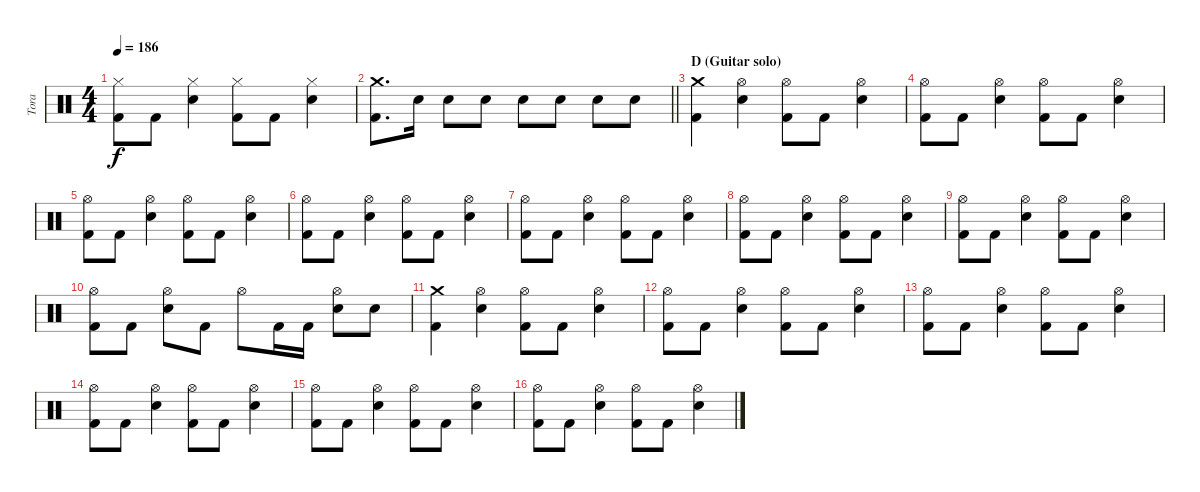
\track ("Tora" "Tora") {instrument percussion}
\staff {score}
\articulation defaults
\ts (4 4)
\tempo 186
\clef neutral
\ks c
("Hi-Hat (closed)" "Kick (hit) 2").8{dy f} "Kick (hit) 2".8 ("Hi-Hat (closed)" "Electric Snare (hit)").4 ("Hi-Hat (closed)" "Kick (hit) 2").8 "Kick (hit) 2".8 ("Hi-Hat (closed)" "Electric Snare (hit)").4 |
\barLineRight lightlight
("Crash medium (hit)" "Kick (hit) 2").8{d} "Electric Snare (hit)".16 "Electric Snare (hit)".8 "Electric Snare (hit)".8 "Electric Snare (hit)".8 "Electric Snare (hit)".8 "Electric Snare (hit)".8 "Electric Snare (hit)".8 |
\section ("" "D (Guitar solo)")
("Crash medium (hit)" "Kick (hit) 2").4 ("Hi-Hat (open)" "Electric Snare (hit)").4 ("Hi-Hat (open)" "Kick (hit) 2").8 "Kick (hit) 2".8 ("Hi-Hat (open)" "Electric Snare (hit)").4 |
("Hi-Hat (open)" "Kick (hit) 2").8 "Kick (hit) 2".8 ("Hi-Hat (open)" "Electric Snare (hit)").4 ("Hi-Hat (open)" "Kick (hit) 2").8 "Kick (hit) 2".8 ("Hi-Hat (open)" "Electric Snare (hit)").4 |
("Hi-Hat (open)" "Kick (hit) 2").8 "Kick (hit) 2".8 ("Hi-Hat (open)" "Electric Snare (hit)").4 ("Hi-Hat (open)" "Kick (hit) 2").8 "Kick (hit) 2".8 ("Hi-Hat (open)" "Electric Snare (hit)").4 |
("Hi-Hat (open)" "Kick (hit) 2").8 "Kick (hit) 2".8 ("Hi-Hat (open)" "Electric Snare (hit)").4 ("Hi-Hat (open)" "Kick (hit) 2").8 "Kick (hit) 2".8 ("Hi-Hat (open)" "Electric Snare (hit)").4 |
("Hi-Hat (open)" "Kick (hit) 2").8 "Kick (hit) 2".8 ("Hi-Hat (open)" "Electric Snare (hit)").4 ("Hi-Hat (open)" "Kick (hit) 2").8 "Kick (hit) 2".8 ("Hi-Hat (open)" "Electric Snare (hit)").4 |
("Hi-Hat (open)" "Kick (hit) 2").8 "Kick (hit) 2".8 ("Hi-Hat (open)" "Electric Snare (hit)").4 ("Hi-Hat (open)" "Kick (hit) 2").8 "Kick (hit) 2".8 ("Hi-Hat (open)" "Electric Snare (hit)").4 |
("Hi-Hat (open)" "Kick (hit) 2").8 "Kick (hit) 2".8 ("Hi-Hat (open)" "Electric Snare (hit)").4 ("Hi-Hat (open)" "Kick (hit) 2").8 "Kick (hit) 2".8 ("Hi-Hat (open)" "Electric Snare (hit)").4 |
("Hi-Hat (open)" "Kick (hit) 2").8 "Kick (hit) 2".8 ("Hi-Hat (open)" "Electric Snare (hit)").8 "Kick (hit) 2".8 "Hi-Hat (open)".8 "Kick (hit) 2".16 "Kick (hit) 2".16 ("Hi-Hat (open)" "Electric Snare (hit)").8 "Electric Snare (hit)".8 |
("Crash medium (hit)" "Kick (hit) 2").4 ("Hi-Hat (open)" "Electric Snare (hit)").4 ("Hi-Hat (open)" "Kick (hit) 2").8 "Kick (hit) 2".8 ("Hi-Hat (open)" "Electric Snare (hit)").4 |
("Hi-Hat (open)" "Kick (hit) 2").8 "Kick (hit) 2".8 ("Hi-Hat (open)" "Electric Snare (hit)").4 ("Hi-Hat (open)" "Kick (hit) 2").8 "Kick (hit) 2".8 ("Hi-Hat (open)" "Electric Snare (hit)").4 |
("Hi-Hat (open)" "Kick (hit) 2").8 "Kick (hit) 2".8 ("Hi-Hat (open)" "Electric Snare (hit)").4 ("Hi-Hat (open)" "Kick (hit) 2").8 "Kick (hit) 2".8 ("Hi-Hat (open)" "Electric Snare (hit)").4 |
("Hi-Hat (open)" "Kick (hit) 2").8 "Kick (hit) 2".8 ("Hi-Hat (open)" "Electric Snare (hit)").4 ("Hi-Hat (open)" "Kick (hit) 2").8 "Kick (hit) 2".8 ("Hi-Hat (open)" "Electric Snare (hit)").4 |
("Hi-Hat (open)" "Kick (hit) 2").8 "Kick (hit) 2".8 ("Hi-Hat (open)" "Electric Snare (hit)").4 ("Hi-Hat (open)" "Kick (hit) 2").8 "Kick (hit) 2".8 ("Hi-Hat (open)" "Electric Snare (hit)").4 |
("Hi-Hat (open)" "Kick (hit) 2").8 "Kick (hit) 2".8 ("Hi-Hat (open)" "Electric Snare (hit)").4 ("Hi-Hat (open)" "Kick (hit) 2").8 "Kick (hit) 2".8 ("Hi-Hat (open)" "Electric Snare (hit)").4
